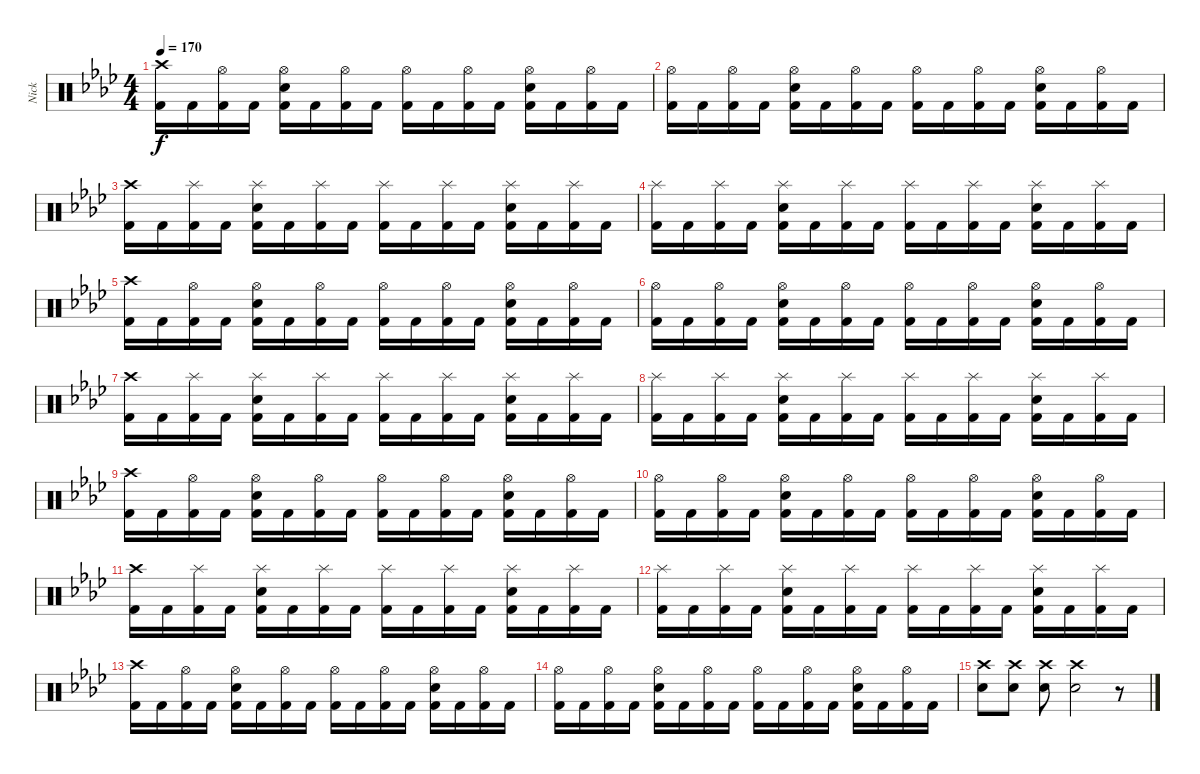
\track ("Nick" "Nick") {instrument percussion}
\staff {score}
\articulation defaults
\ts (4 4)
\tempo 170
\clef neutral
\ks ab
("Crash high (hit)" "Kick (hit) 2").16{dy f} "Kick (hit) 2".16 ("Hi-Hat (open)" "Kick (hit) 2").16 "Kick (hit) 2".16 ("Hi-Hat (open)" "Snare (hit) 2" "Kick (hit) 2").16 "Kick (hit) 2".16 ("Hi-Hat (open)" "Kick (hit) 2").16 "Kick (hit) 2".16 ("Hi-Hat (open)" "Kick (hit) 2").16 "Kick (hit) 2".16 ("Hi-Hat (open)" "Kick (hit) 2").16 "Kick (hit) 2".16 ("Hi-Hat (open)" "Snare (hit) 2" "Kick (hit) 2").16 "Kick (hit) 2".16 ("Hi-Hat (open)" "Kick (hit) 2").16 "Kick (hit) 2".16 |
("Hi-Hat (open)" "Kick (hit) 2").16 "Kick (hit) 2".16 ("Hi-Hat (open)" "Kick (hit) 2").16 "Kick (hit) 2".16 ("Hi-Hat (open)" "Snare (hit) 2" "Kick (hit) 2").16 "Kick (hit) 2".16 ("Hi-Hat (open)" "Kick (hit) 2").16 "Kick (hit) 2".16 ("Hi-Hat (open)" "Kick (hit) 2").16 "Kick (hit) 2".16 ("Hi-Hat (open)" "Kick (hit) 2").16 "Kick (hit) 2".16 ("Hi-Hat (open)" "Snare (hit) 2" "Kick (hit) 2").16 "Kick (hit) 2".16 ("Hi-Hat (open)" "Kick (hit) 2").16 "Kick (hit) 2".16 |
("Crash high (hit)" "Kick (hit) 2").16 "Kick (hit) 2".16 ("Splash (hit)" "Kick (hit) 2").16 "Kick (hit) 2".16 ("Splash (hit)" "Snare (hit) 2" "Kick (hit) 2").16 "Kick (hit) 2".16 ("Splash (hit)" "Kick (hit) 2").16 "Kick (hit) 2".16 ("Splash (hit)" "Kick (hit) 2").16 "Kick (hit) 2".16 ("Splash (hit)" "Kick (hit) 2").16 "Kick (hit) 2".16 ("Splash (hit)" "Snare (hit) 2" "Kick (hit) 2").16 "Kick (hit) 2".16 ("Splash (hit)" "Kick (hit) 2").16 "Kick (hit) 2".16 |
("Splash (hit)" "Kick (hit) 2").16 "Kick (hit) 2".16 ("Splash (hit)" "Kick (hit) 2").16 "Kick (hit) 2".16 ("Splash (hit)" "Snare (hit) 2" "Kick (hit) 2").16 "Kick (hit) 2".16 ("Splash (hit)" "Kick (hit) 2").16 "Kick (hit) 2".16 ("Splash (hit)" "Kick (hit) 2").16 "Kick (hit) 2".16 ("Splash (hit)" "Kick (hit) 2").16 "Kick (hit) 2".16 ("Splash (hit)" "Snare (hit) 2" "Kick (hit) 2").16 "Kick (hit) 2".16 ("Splash (hit)" "Kick (hit) 2").16 "Kick (hit) 2".16 |
("Crash high (hit)" "Kick (hit) 2").16 "Kick (hit) 2".16 ("Hi-Hat (open)" "Kick (hit) 2").16 "Kick (hit) 2".16 ("Hi-Hat (open)" "Snare (hit) 2" "Kick (hit) 2").16 "Kick (hit) 2".16 ("Hi-Hat (open)" "Kick (hit) 2").16 "Kick (hit) 2".16 ("Hi-Hat (open)" "Kick (hit) 2").16 "Kick (hit) 2".16 ("Hi-Hat (open)" "Kick (hit) 2").16 "Kick (hit) 2".16 ("Hi-Hat (open)" "Snare (hit) 2" "Kick (hit) 2").16 "Kick (hit) 2".16 ("Hi-Hat (open)" "Kick (hit) 2").16 "Kick (hit) 2".16 |
("Hi-Hat (open)" "Kick (hit) 2").16 "Kick (hit) 2".16 ("Hi-Hat (open)" "Kick (hit) 2").16 "Kick (hit) 2".16 ("Hi-Hat (open)" "Snare (hit) 2" "Kick (hit) 2").16 "Kick (hit) 2".16 ("Hi-Hat (open)" "Kick (hit) 2").16 "Kick (hit) 2".16 ("Hi-Hat (open)" "Kick (hit) 2").16 "Kick (hit) 2".16 ("Hi-Hat (open)" "Kick (hit) 2").16 "Kick (hit) 2".16 ("Hi-Hat (open)" "Snare (hit) 2" "Kick (hit) 2").16 "Kick (hit) 2".16 ("Hi-Hat (open)" "Kick (hit) 2").16 "Kick (hit) 2".16 |
("Crash high (hit)" "Kick (hit) 2").16 "Kick (hit) 2".16 ("Splash (hit)" "Kick (hit) 2").16 "Kick (hit) 2".16 ("Splash (hit)" "Snare (hit) 2" "Kick (hit) 2").16 "Kick (hit) 2".16 ("Splash (hit)" "Kick (hit) 2").16 "Kick (hit) 2".16 ("Splash (hit)" "Kick (hit) 2").16 "Kick (hit) 2".16 ("Splash (hit)" "Kick (hit) 2").16 "Kick (hit) 2".16 ("Splash (hit)" "Snare (hit) 2" "Kick (hit) 2").16 "Kick (hit) 2".16 ("Splash (hit)" "Kick (hit) 2").16 "Kick (hit) 2".16 |
("Splash (hit)" "Kick (hit) 2").16 "Kick (hit) 2".16 ("Splash (hit)" "Kick (hit) 2").16 "Kick (hit) 2".16 ("Splash (hit)" "Snare (hit) 2" "Kick (hit) 2").16 "Kick (hit) 2".16 ("Splash (hit)" "Kick (hit) 2").16 "Kick (hit) 2".16 ("Splash (hit)" "Kick (hit) 2").16 "Kick (hit) 2".16 ("Splash (hit)" "Kick (hit) 2").16 "Kick (hit) 2".16 ("Splash (hit)" "Snare (hit) 2" "Kick (hit) 2").16 "Kick (hit) 2".16 ("Splash (hit)" "Kick (hit) 2").16 "Kick (hit) 2".16 |
("Crash high (hit)" "Kick (hit) 2").16 "Kick (hit) 2".16 ("Hi-Hat (open)" "Kick (hit) 2").16 "Kick (hit) 2".16 ("Hi-Hat (open)" "Snare (hit) 2" "Kick (hit) 2").16 "Kick (hit) 2".16 ("Hi-Hat (open)" "Kick (hit) 2").16 "Kick (hit) 2".16 ("Hi-Hat (open)" "Kick (hit) 2").16 "Kick (hit) 2".16 ("Hi-Hat (open)" "Kick (hit) 2").16 "Kick (hit) 2".16 ("Hi-Hat (open)" "Snare (hit) 2" "Kick (hit) 2").16 "Kick (hit) 2".16 ("Hi-Hat (open)" "Kick (hit) 2").16 "Kick (hit) 2".16 |
("Hi-Hat (open)" "Kick (hit) 2").16 "Kick (hit) 2".16 ("Hi-Hat (open)" "Kick (hit) 2").16 "Kick (hit) 2".16 ("Hi-Hat (open)" "Snare (hit) 2" "Kick (hit) 2").16 "Kick (hit) 2".16 ("Hi-Hat (open)" "Kick (hit) 2").16 "Kick (hit) 2".16 ("Hi-Hat (open)" "Kick (hit) 2").16 "Kick (hit) 2".16 ("Hi-Hat (open)" "Kick (hit) 2").16 "Kick (hit) 2".16 ("Hi-Hat (open)" "Snare (hit) 2" "Kick (hit) 2").16 "Kick (hit) 2".16 ("Hi-Hat (open)" "Kick (hit) 2").16 "Kick (hit) 2".16 |
("Crash high (hit)" "Kick (hit) 2").16 "Kick (hit) 2".16 ("Splash (hit)" "Kick (hit) 2").16 "Kick (hit) 2".16 ("Splash (hit)" "Snare (hit) 2" "Kick (hit) 2").16 "Kick (hit) 2".16 ("Splash (hit)" "Kick (hit) 2").16 "Kick (hit) 2".16 ("Splash (hit)" "Kick (hit) 2").16 "Kick (hit) 2".16 ("Splash (hit)" "Kick (hit) 2").16 "Kick (hit) 2".16 ("Splash (hit)" "Snare (hit) 2" "Kick (hit) 2").16 "Kick (hit) 2".16 ("Splash (hit)" "Kick (hit) 2").16 "Kick (hit) 2".16 |
("Splash (hit)" "Kick (hit) 2").16 "Kick (hit) 2".16 ("Splash (hit)" "Kick (hit) 2").16 "Kick (hit) 2".16 ("Splash (hit)" "Snare (hit) 2" "Kick (hit) 2").16 "Kick (hit) 2".16 ("Splash (hit)" "Kick (hit) 2").16 "Kick (hit) 2".16 ("Splash (hit)" "Kick (hit) 2").16 "Kick (hit) 2".16 ("Splash (hit)" "Kick (hit) 2").16 "Kick (hit) 2".16 ("Splash (hit)" "Snare (hit) 2" "Kick (hit) 2").16 "Kick (hit) 2".16 ("Splash (hit)" "Kick (hit) 2").16 "Kick (hit) 2".16 |
("Crash high (hit)" "Kick (hit) 2").16 "Kick (hit) 2".16 ("Hi-Hat (open)" "Kick (hit) 2").16 "Kick (hit) 2".16 ("Hi-Hat (open)" "Snare (hit) 2" "Kick (hit) 2").16 "Kick (hit) 2".16 ("Hi-Hat (open)" "Kick (hit) 2").16 "Kick (hit) 2".16 ("Hi-Hat (open)" "Kick (hit) 2").16 "Kick (hit) 2".16 ("Hi-Hat (open)" "Kick (hit) 2").16 "Kick (hit) 2".16 ("Hi-Hat (open)" "Snare (hit) 2" "Kick (hit) 2").16 "Kick (hit) 2".16 ("Hi-Hat (open)" "Kick (hit) 2").16 "Kick (hit) 2".16 |
("Hi-Hat (open)" "Kick (hit) 2").16 "Kick (hit) 2".16 ("Hi-Hat (open)" "Kick (hit) 2").16 "Kick (hit) 2".16 ("Hi-Hat (open)" "Snare (hit) 2" "Kick (hit) 2").16 "Kick (hit) 2".16 ("Hi-Hat (open)" "Kick (hit) 2").16 "Kick (hit) 2".16 ("Hi-Hat (open)" "Kick (hit) 2").16 "Kick (hit) 2".16 ("Hi-Hat (open)" "Kick (hit) 2").16 "Kick (hit) 2".16 ("Hi-Hat (open)" "Snare (hit) 2" "Kick (hit) 2").16 "Kick (hit) 2".16 ("Hi-Hat (open)" "Kick (hit) 2").16 "Kick (hit) 2".16 |
("Crash high (hit)" "Snare (hit) 2").8 ("Crash high (hit)" "Snare (hit) 2").8 ("Crash high (hit)" "Snare (hit) 2").8 ("Crash high (hit)" "Snare (hit) 2").2 r.8
